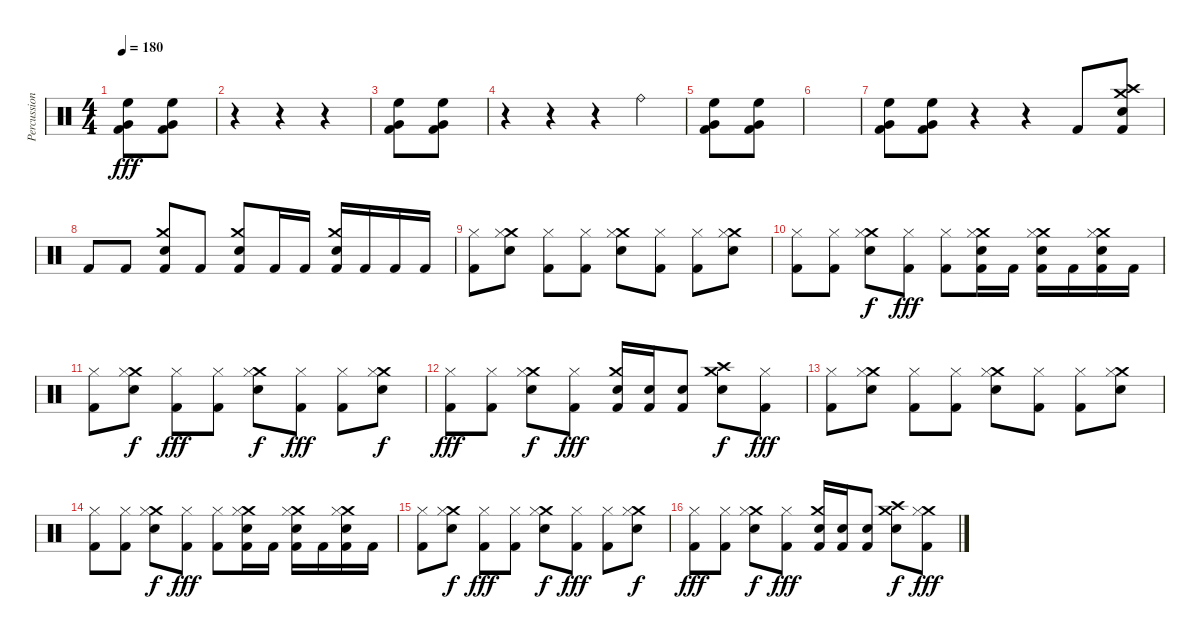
\track ("Percussion" "Percussion") {instrument percussion}
\staff {score}
\articulation defaults
\ts (4 4)
\tempo 180
\clef neutral
\ks c
("High Floor Tom (hit)" "Very Low Tom (hit)" "Kick (hit) 2").8{dy fff} ("High Floor Tom (hit)" "Very Low Tom (hit)" "Kick (hit) 2").8 |
r.4 r.4 r.4 |
("High Floor Tom (hit)" "Very Low Tom (hit)" "Kick (hit) 2").8 ("High Floor Tom (hit)" "Very Low Tom (hit)" "Kick (hit) 2").8 |
r.4 r.4 r.4 "Ride (bell)".4 |
("High Floor Tom (hit)" "Very Low Tom (hit)" "Kick (hit) 2").8 ("High Floor Tom (hit)" "Very Low Tom (hit)" "Kick (hit) 2").8 |
|
("High Floor Tom (hit)" "Very Low Tom (hit)" "Kick (hit) 2").8 ("High Floor Tom (hit)" "Very Low Tom (hit)" "Kick (hit) 2").8 r.4 r.4 "Kick (hit) 2".8 ("Crash medium (hit)" "Crash high (hit)" "Snare (hit) 2" "Kick (hit) 2").8 |
"Kick (hit) 2".8 "Kick (hit) 2".8 ("Crash medium (hit)" "Snare (hit) 2" "Kick (hit) 2").8 "Kick (hit) 2".8 ("Crash medium (hit)" "Snare (hit) 2" "Kick (hit) 2").8 "Kick (hit) 2".16 "Kick (hit) 2".16 ("Crash medium (hit)" "Snare (hit) 2" "Kick (hit) 2").16 "Kick (hit) 2".16 "Kick (hit) 2".16 "Kick (hit) 2".16 |
("Hi-Hat (closed)" "Kick (hit) 2").8 ("Crash medium (hit)" "Hi-Hat (closed)" "Snare (hit) 2").8 ("Hi-Hat (closed)" "Kick (hit) 2").8 ("Hi-Hat (closed)" "Kick (hit) 2").8 ("Crash medium (hit)" "Hi-Hat (closed)" "Snare (hit) 2").8 ("Hi-Hat (closed)" "Kick (hit) 2").8 ("Hi-Hat (closed)" "Kick (hit) 2").8 ("Crash medium (hit)" "Hi-Hat (closed)" "Snare (hit) 2").8 |
("Hi-Hat (closed)" "Kick (hit) 2").8 ("Hi-Hat (closed)" "Kick (hit) 2").8 ("Crash medium (hit)" "Hi-Hat (closed)" "Snare (hit) 2").8{dy f} ("Hi-Hat (closed)" "Kick (hit) 2").8{dy fff} ("Hi-Hat (closed)" "Kick (hit) 2").8 ("Crash medium (hit)" "Hi-Hat (closed)" "Snare (hit) 2" "Kick (hit) 2").16 "Kick (hit) 2".16 ("Crash medium (hit)" "Hi-Hat (closed)" "Snare (hit) 2" "Kick (hit) 2").16 "Kick (hit) 2".16 ("Crash medium (hit)" "Hi-Hat (closed)" "Snare (hit) 2" "Kick (hit) 2").16 "Kick (hit) 2".16 |
("Hi-Hat (closed)" "Kick (hit) 2").8 ("Crash medium (hit)" "Hi-Hat (closed)" "Snare (hit) 2").8{dy f} ("Hi-Hat (closed)" "Kick (hit) 2").8{dy fff} ("Hi-Hat (closed)" "Kick (hit) 2").8 ("Crash medium (hit)" "Hi-Hat (closed)" "Snare (hit) 2").8{dy f} ("Hi-Hat (closed)" "Kick (hit) 2").8{dy fff} ("Hi-Hat (closed)" "Kick (hit) 2").8 ("Crash medium (hit)" "Hi-Hat (closed)" "Snare (hit) 2").8{dy f} |
("Hi-Hat (closed)" "Kick (hit) 2").8{dy fff} ("Hi-Hat (closed)" "Kick (hit) 2").8 ("Crash medium (hit)" "Hi-Hat (closed)" "Snare (hit) 2").8{dy f} ("Hi-Hat (closed)" "Kick (hit) 2").8{dy fff} ("Crash medium (hit)" "Snare (hit) 2" "Kick (hit) 2").16 ("Snare (hit) 2" "Kick (hit) 2").16 ("Snare (hit) 2" "Kick (hit) 2").8 ("Crash medium (hit)" "Crash high (hit)" "Snare (hit) 2").8{dy f} ("Hi-Hat (closed)" "Kick (hit) 2").8{dy fff} |
("Hi-Hat (closed)" "Kick (hit) 2").8 ("Crash medium (hit)" "Hi-Hat (closed)" "Snare (hit) 2").8 ("Hi-Hat (closed)" "Kick (hit) 2").8 ("Hi-Hat (closed)" "Kick (hit) 2").8 ("Crash medium (hit)" "Hi-Hat (closed)" "Snare (hit) 2").8 ("Hi-Hat (closed)" "Kick (hit) 2").8 ("Hi-Hat (closed)" "Kick (hit) 2").8 ("Crash medium (hit)" "Hi-Hat (closed)" "Snare (hit) 2").8 |
("Hi-Hat (closed)" "Kick (hit) 2").8 ("Hi-Hat (closed)" "Kick (hit) 2").8 ("Crash medium (hit)" "Hi-Hat (closed)" "Snare (hit) 2").8{dy f} ("Hi-Hat (closed)" "Kick (hit) 2").8{dy fff} ("Hi-Hat (closed)" "Kick (hit) 2").8 ("Crash medium (hit)" "Hi-Hat (closed)" "Snare (hit) 2" "Kick (hit) 2").16 "Kick (hit) 2".16 ("Crash medium (hit)" "Hi-Hat (closed)" "Snare (hit) 2" "Kick (hit) 2").16 "Kick (hit) 2".16 ("Crash medium (hit)" "Hi-Hat (closed)" "Snare (hit) 2" "Kick (hit) 2").16 "Kick (hit) 2".16 |
("Hi-Hat (closed)" "Kick (hit) 2").8 ("Crash medium (hit)" "Hi-Hat (closed)" "Snare (hit) 2").8{dy f} ("Hi-Hat (closed)" "Kick (hit) 2").8{dy fff} ("Hi-Hat (closed)" "Kick (hit) 2").8 ("Crash medium (hit)" "Hi-Hat (closed)" "Snare (hit) 2").8{dy f} ("Hi-Hat (closed)" "Kick (hit) 2").8{dy fff} ("Hi-Hat (closed)" "Kick (hit) 2").8 ("Crash medium (hit)" "Hi-Hat (closed)" "Snare (hit) 2").8{dy f} |
("Hi-Hat (closed)" "Kick (hit) 2").8{dy fff} ("Hi-Hat (closed)" "Kick (hit) 2").8 ("Crash medium (hit)" "Hi-Hat (closed)" "Snare (hit) 2").8{dy f} ("Hi-Hat (closed)" "Kick (hit) 2").8{dy fff} ("Crash medium (hit)" "Snare (hit) 2" "Kick (hit) 2").16 ("Snare (hit) 2" "Kick (hit) 2").16 ("Snare (hit) 2" "Kick (hit) 2").8 ("Crash medium (hit)" "Crash high (hit)" "Snare (hit) 2").8{dy f} ("Crash medium (hit)" "Hi-Hat (closed)" "Kick (hit) 2").8{dy fff}
